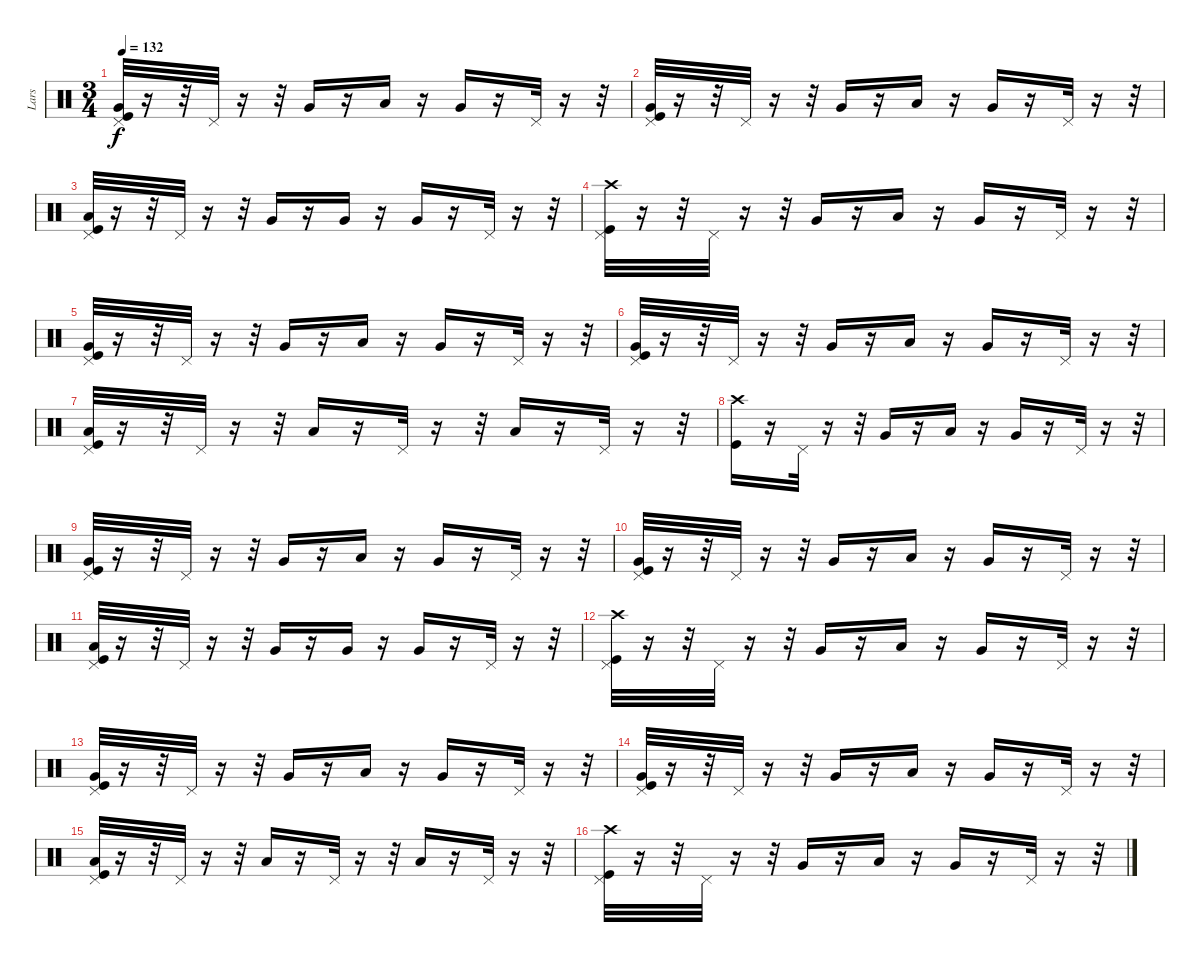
\track ("Lars" "Lars") {instrument percussion}
\staff {score}
\articulation defaults
\ts (3 4)
\tempo 132
\clef neutral
\ks c
("Kick (hit)" "Pedal Hi-Hat (hit)" "Very Low Tom (hit)").32{dy f} r.16 r.32 "Pedal Hi-Hat (hit)".32 r.16 r.32 "Very Low Tom (hit)".16 r.16 "Low Tom (hit)".16 r.16 "Very Low Tom (hit)".16 r.16 "Pedal Hi-Hat (hit)".32 r.16 r.32 |
("Kick (hit)" "Pedal Hi-Hat (hit)" "Very Low Tom (hit)").32 r.16 r.32 "Pedal Hi-Hat (hit)".32 r.16 r.32 "Very Low Tom (hit)".16 r.16 "Low Tom (hit)".16 r.16 "Very Low Tom (hit)".16 r.16 "Pedal Hi-Hat (hit)".32 r.16 r.32 |
("Kick (hit)" "Low Tom (hit)" "Pedal Hi-Hat (hit)").32 r.16 r.32 "Pedal Hi-Hat (hit)".32 r.16 r.32 "Very Low Tom (hit)".16 r.16 "Very Low Tom (hit)".16 r.16 "Very Low Tom (hit)".16 r.16 "Pedal Hi-Hat (hit)".32 r.16 r.32 |
("Kick (hit)" "Crash high (hit)" "Pedal Hi-Hat (hit)").32 r.16 r.32 "Pedal Hi-Hat (hit)".32 r.16 r.32 "Very Low Tom (hit)".16 r.16 "Low Tom (hit)".16 r.16 "Very Low Tom (hit)".16 r.16 "Pedal Hi-Hat (hit)".32 r.16 r.32 |
("Kick (hit)" "Pedal Hi-Hat (hit)" "Very Low Tom (hit)").32 r.16 r.32 "Pedal Hi-Hat (hit)".32 r.16 r.32 "Very Low Tom (hit)".16 r.16 "Low Tom (hit)".16 r.16 "Very Low Tom (hit)".16 r.16 "Pedal Hi-Hat (hit)".32 r.16 r.32 |
("Kick (hit)" "Pedal Hi-Hat (hit)" "Very Low Tom (hit)").32 r.16 r.32 "Pedal Hi-Hat (hit)".32 r.16 r.32 "Very Low Tom (hit)".16 r.16 "Low Tom (hit)".16 r.16 "Very Low Tom (hit)".16 r.16 "Pedal Hi-Hat (hit)".32 r.16 r.32 |
("Kick (hit)" "Low Tom (hit)" "Pedal Hi-Hat (hit)").32 r.16 r.32 "Pedal Hi-Hat (hit)".32 r.16 r.32 "Low Floor Tom (hit)".16 r.16 "Pedal Hi-Hat (hit)".32 r.16 r.32 "Low Floor Tom (hit)".16 r.16 "Pedal Hi-Hat (hit)".32 r.16 r.32 |
("Crash high (hit)" "Kick (hit)").16 r.16 "Pedal Hi-Hat (hit)".32 r.16 r.32 "Very Low Tom (hit)".16 r.16 "Low Tom (hit)".16 r.16 "Very Low Tom (hit)".16 r.16 "Pedal Hi-Hat (hit)".32 r.16 r.32 |
("Kick (hit)" "Pedal Hi-Hat (hit)" "Very Low Tom (hit)").32 r.16 r.32 "Pedal Hi-Hat (hit)".32 r.16 r.32 "Very Low Tom (hit)".16 r.16 "Low Tom (hit)".16 r.16 "Very Low Tom (hit)".16 r.16 "Pedal Hi-Hat (hit)".32 r.16 r.32 |
("Kick (hit)" "Pedal Hi-Hat (hit)" "Very Low Tom (hit)").32 r.16 r.32 "Pedal Hi-Hat (hit)".32 r.16 r.32 "Very Low Tom (hit)".16 r.16 "Low Tom (hit)".16 r.16 "Very Low Tom (hit)".16 r.16 "Pedal Hi-Hat (hit)".32 r.16 r.32 |
("Kick (hit)" "Low Tom (hit)" "Pedal Hi-Hat (hit)").32 r.16 r.32 "Pedal Hi-Hat (hit)".32 r.16 r.32 "Very Low Tom (hit)".16 r.16 "Very Low Tom (hit)".16 r.16 "Very Low Tom (hit)".16 r.16 "Pedal Hi-Hat (hit)".32 r.16 r.32 |
("Kick (hit)" "Crash high (hit)" "Pedal Hi-Hat (hit)").32 r.16 r.32 "Pedal Hi-Hat (hit)".32 r.16 r.32 "Very Low Tom (hit)".16 r.16 "Low Tom (hit)".16 r.16 "Very Low Tom (hit)".16 r.16 "Pedal Hi-Hat (hit)".32 r.16 r.32 |
("Kick (hit)" "Pedal Hi-Hat (hit)" "Very Low Tom (hit)").32 r.16 r.32 "Pedal Hi-Hat (hit)".32 r.16 r.32 "Very Low Tom (hit)".16 r.16 "Low Tom (hit)".16 r.16 "Very Low Tom (hit)".16 r.16 "Pedal Hi-Hat (hit)".32 r.16 r.32 |
("Kick (hit)" "Pedal Hi-Hat (hit)" "Very Low Tom (hit)").32 r.16 r.32 "Pedal Hi-Hat (hit)".32 r.16 r.32 "Very Low Tom (hit)".16 r.16 "Low Tom (hit)".16 r.16 "Very Low Tom (hit)".16 r.16 "Pedal Hi-Hat (hit)".32 r.16 r.32 |
("Kick (hit)" "Low Tom (hit)" "Pedal Hi-Hat (hit)").32 r.16 r.32 "Pedal Hi-Hat (hit)".32 r.16 r.32 "Low Floor Tom (hit)".16 r.16 "Pedal Hi-Hat (hit)".32 r.16 r.32 "Low Floor Tom (hit)".16 r.16 "Pedal Hi-Hat (hit)".32 r.16 r.32 |
("Pedal Hi-Hat (hit)" "Kick (hit)" "Crash high (hit)").32 r.16 r.32 "Pedal Hi-Hat (hit)".32 r.16 r.32 "Very Low Tom (hit)".16 r.16 "Low Tom (hit)".16 r.16 "Very Low Tom (hit)".16 r.16 "Pedal Hi-Hat (hit)".32 r.16 r.32
